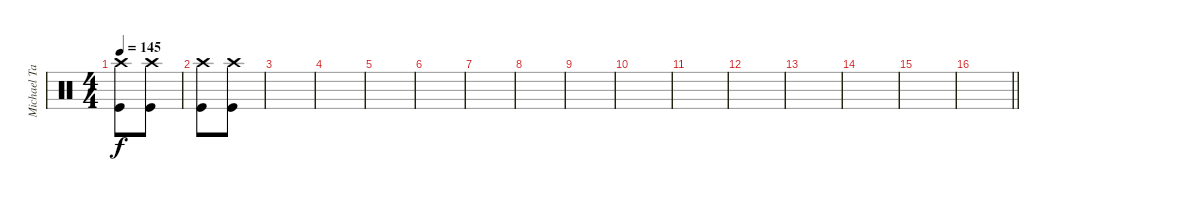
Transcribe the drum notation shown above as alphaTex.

\track ("Michael Tapper - Drums" "Michael Ta") {instrument percussion}
\staff {score}
\articulation defaults
\ts (4 4)
\tempo 145
\clef neutral
\ks c
("Crash high (hit)" "Kick (hit)").8{dy f} ("Kick (hit)" "Crash high (hit)").8 |
("Crash high (hit)" "Kick (hit)").8 ("Kick (hit)" "Crash high (hit)").8 |
|
|
|
|
|
|
|
|
|
|
|
|
|
\barLineRight lightlight
